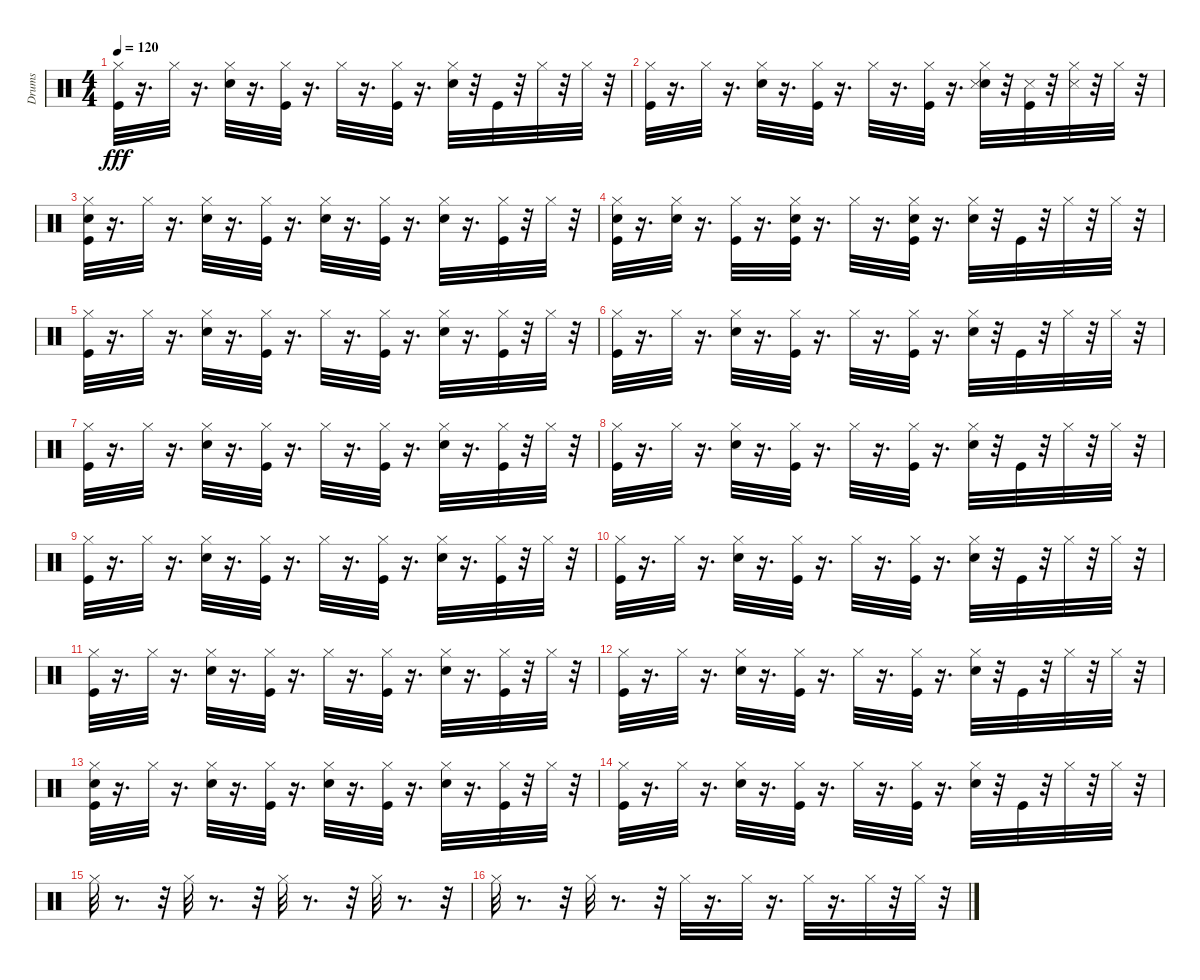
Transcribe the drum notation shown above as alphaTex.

\track ("Drums" "Drums") {solo instrument percussion}
\staff {score}
\articulation defaults
\ts (4 4)
\tempo 120
\clef neutral
\ks c
("Kick (hit)" "Hi-Hat (closed)").32{dy fff} r.16{d} "Hi-Hat (closed)".32 r.16{d} ("Snare (hit) 2" "Hi-Hat (closed)").32 r.16{d} ("Kick (hit)" "Hi-Hat (closed)").32 r.16{d} "Hi-Hat (closed)".32 r.16{d} ("Kick (hit)" "Hi-Hat (closed)").32 r.16{d} ("Snare (hit) 2" "Hi-Hat (closed)").32 r.32 "Kick (hit)".32 r.32 "Hi-Hat (closed)".32 r.32 "Hi-Hat (closed)".32 r.32 |
("Kick (hit)" "Hi-Hat (closed)").32 r.16{d} "Hi-Hat (closed)".32 r.16{d} ("Snare (hit) 2" "Hi-Hat (closed)").32 r.16{d} ("Kick (hit)" "Hi-Hat (closed)").32 r.16{d} "Hi-Hat (closed)".32 r.16{d} ("Kick (hit)" "Hi-Hat (closed)").32 r.16{d} ("Snare (hit) 2" "Hi-Hat (closed)" "Snare (side stick) 3").32 r.32 ("Kick (hit)" "Snare (side stick) 3").32 r.32 ("Hi-Hat (closed)" "Snare (side stick) 3").32 r.32 "Hi-Hat (closed)".32 r.32 |
("Kick (hit)" "Snare (hit) 2" "Hi-Hat (closed)").32 r.16{d} "Hi-Hat (closed)".32 r.16{d} ("Snare (hit) 2" "Hi-Hat (closed)").32 r.16{d} ("Kick (hit)" "Hi-Hat (closed)").32 r.16{d} ("Snare (hit) 2" "Hi-Hat (closed)").32 r.16{d} ("Kick (hit)" "Hi-Hat (closed)").32 r.16{d} ("Snare (hit) 2" "Hi-Hat (closed)").32 r.16{d} ("Kick (hit)" "Hi-Hat (closed)").32 r.32 "Hi-Hat (closed)".32 r.32 |
("Kick (hit)" "Snare (hit) 2" "Hi-Hat (closed)").32 r.16{d} ("Snare (hit) 2" "Hi-Hat (closed)").32 r.16{d} ("Kick (hit)" "Hi-Hat (closed)").32 r.16{d} ("Kick (hit)" "Snare (hit) 2" "Hi-Hat (closed)").32 r.16{d} "Hi-Hat (closed)".32 r.16{d} ("Kick (hit)" "Snare (hit) 2" "Hi-Hat (closed)").32 r.16{d} ("Snare (hit) 2" "Hi-Hat (closed)").32 r.32 "Kick (hit)".32 r.32 "Hi-Hat (closed)".32 r.32 "Hi-Hat (closed)".32 r.32 |
("Kick (hit)" "Hi-Hat (closed)").32 r.16{d} "Hi-Hat (closed)".32 r.16{d} ("Snare (hit) 2" "Hi-Hat (closed)").32 r.16{d} ("Kick (hit)" "Hi-Hat (closed)").32 r.16{d} "Hi-Hat (closed)".32 r.16{d} ("Kick (hit)" "Hi-Hat (closed)").32 r.16{d} ("Snare (hit) 2" "Hi-Hat (closed)").32 r.16{d} ("Kick (hit)" "Hi-Hat (closed)").32 r.32 "Hi-Hat (closed)".32 r.32 |
("Kick (hit)" "Hi-Hat (closed)").32 r.16{d} "Hi-Hat (closed)".32 r.16{d} ("Snare (hit) 2" "Hi-Hat (closed)").32 r.16{d} ("Kick (hit)" "Hi-Hat (closed)").32 r.16{d} "Hi-Hat (closed)".32 r.16{d} ("Kick (hit)" "Hi-Hat (closed)").32 r.16{d} ("Snare (hit) 2" "Hi-Hat (closed)").32 r.32 "Kick (hit)".32 r.32 "Hi-Hat (closed)".32 r.32 "Hi-Hat (closed)".32 r.32 |
("Kick (hit)" "Hi-Hat (closed)").32 r.16{d} "Hi-Hat (closed)".32 r.16{d} ("Snare (hit) 2" "Hi-Hat (closed)").32 r.16{d} ("Kick (hit)" "Hi-Hat (closed)").32 r.16{d} "Hi-Hat (closed)".32 r.16{d} ("Kick (hit)" "Hi-Hat (closed)").32 r.16{d} ("Snare (hit) 2" "Hi-Hat (closed)").32 r.16{d} ("Kick (hit)" "Hi-Hat (closed)").32 r.32 "Hi-Hat (closed)".32 r.32 |
("Kick (hit)" "Hi-Hat (closed)").32 r.16{d} "Hi-Hat (closed)".32 r.16{d} ("Snare (hit) 2" "Hi-Hat (closed)").32 r.16{d} ("Kick (hit)" "Hi-Hat (closed)").32 r.16{d} "Hi-Hat (closed)".32 r.16{d} ("Kick (hit)" "Hi-Hat (closed)").32 r.16{d} ("Snare (hit) 2" "Hi-Hat (closed)").32 r.32 "Kick (hit)".32 r.32 "Hi-Hat (closed)".32 r.32 "Hi-Hat (closed)".32 r.32 |
("Kick (hit)" "Hi-Hat (closed)").32 r.16{d} "Hi-Hat (closed)".32 r.16{d} ("Snare (hit) 2" "Hi-Hat (closed)").32 r.16{d} ("Kick (hit)" "Hi-Hat (closed)").32 r.16{d} "Hi-Hat (closed)".32 r.16{d} ("Kick (hit)" "Hi-Hat (closed)").32 r.16{d} ("Snare (hit) 2" "Hi-Hat (closed)").32 r.16{d} ("Kick (hit)" "Hi-Hat (closed)").32 r.32 "Hi-Hat (closed)".32 r.32 |
("Kick (hit)" "Hi-Hat (closed)").32 r.16{d} "Hi-Hat (closed)".32 r.16{d} ("Snare (hit) 2" "Hi-Hat (closed)").32 r.16{d} ("Kick (hit)" "Hi-Hat (closed)").32 r.16{d} "Hi-Hat (closed)".32 r.16{d} ("Kick (hit)" "Hi-Hat (closed)").32 r.16{d} ("Snare (hit) 2" "Hi-Hat (closed)").32 r.32 "Kick (hit)".32 r.32 "Hi-Hat (closed)".32 r.32 "Hi-Hat (closed)".32 r.32 |
("Kick (hit)" "Hi-Hat (closed)").32 r.16{d} "Hi-Hat (closed)".32 r.16{d} ("Snare (hit) 2" "Hi-Hat (closed)").32 r.16{d} ("Kick (hit)" "Hi-Hat (closed)").32 r.16{d} "Hi-Hat (closed)".32 r.16{d} ("Kick (hit)" "Hi-Hat (closed)").32 r.16{d} ("Snare (hit) 2" "Hi-Hat (closed)").32 r.16{d} ("Kick (hit)" "Hi-Hat (closed)").32 r.32 "Hi-Hat (closed)".32 r.32 |
("Kick (hit)" "Hi-Hat (closed)").32 r.16{d} "Hi-Hat (closed)".32 r.16{d} ("Snare (hit) 2" "Hi-Hat (closed)").32 r.16{d} ("Kick (hit)" "Hi-Hat (closed)").32 r.16{d} "Hi-Hat (closed)".32 r.16{d} ("Kick (hit)" "Hi-Hat (closed)").32 r.16{d} ("Snare (hit) 2" "Hi-Hat (closed)").32 r.32 "Kick (hit)".32 r.32 "Hi-Hat (closed)".32 r.32 "Hi-Hat (closed)".32 r.32 |
("Kick (hit)" "Snare (hit) 2" "Hi-Hat (closed)").32 r.16{d} "Hi-Hat (closed)".32 r.16{d} ("Snare (hit) 2" "Hi-Hat (closed)").32 r.16{d} ("Kick (hit)" "Hi-Hat (closed)").32 r.16{d} ("Snare (hit) 2" "Hi-Hat (closed)").32 r.16{d} ("Kick (hit)" "Hi-Hat (closed)").32 r.16{d} ("Snare (hit) 2" "Hi-Hat (closed)").32 r.16{d} ("Kick (hit)" "Hi-Hat (closed)").32 r.32 "Hi-Hat (closed)".32 r.32 |
("Kick (hit)" "Hi-Hat (closed)").32 r.16{d} "Hi-Hat (closed)".32 r.16{d} ("Snare (hit) 2" "Hi-Hat (closed)").32 r.16{d} ("Kick (hit)" "Hi-Hat (closed)").32 r.16{d} "Hi-Hat (closed)".32 r.16{d} ("Kick (hit)" "Hi-Hat (closed)").32 r.16{d} ("Snare (hit) 2" "Hi-Hat (closed)").32 r.32 "Kick (hit)".32 r.32 "Hi-Hat (closed)".32 r.32 "Hi-Hat (closed)".32 r.32 |
"Hi-Hat (closed)".32 r.8{d} r.32 "Hi-Hat (closed)".32 r.8{d} r.32 "Hi-Hat (closed)".32 r.8{d} r.32 "Hi-Hat (closed)".32 r.8{d} r.32 |
"Hi-Hat (closed)".32 r.8{d} r.32 "Hi-Hat (closed)".32 r.8{d} r.32 "Hi-Hat (closed)".32 r.16{d} "Hi-Hat (closed)".32 r.16{d} "Hi-Hat (closed)".32 r.16{d} "Hi-Hat (closed)".32 r.32 "Hi-Hat (closed)".32 r.32
